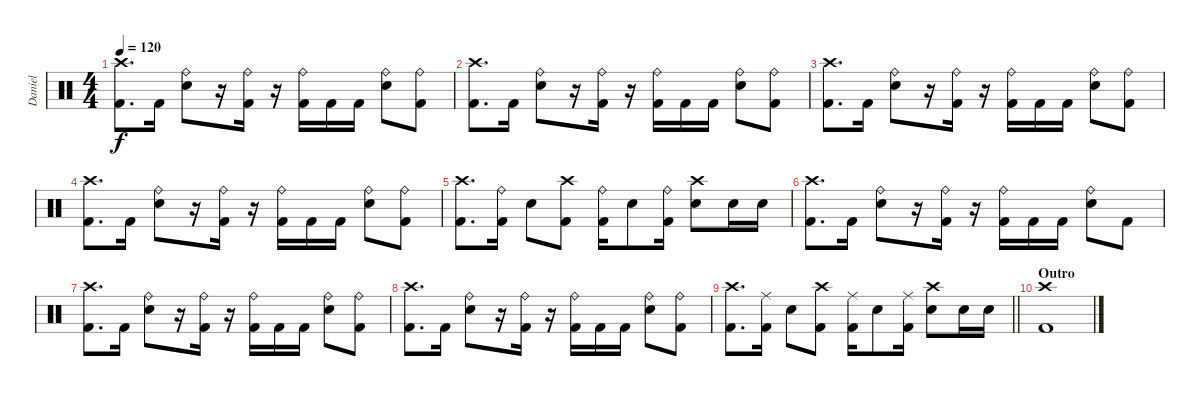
\track ("Daniel" "Daniel") {instrument percussion}
\staff {score}
\articulation defaults
\ts (4 4)
\tempo 120
\clef neutral
\ks c
("Crash high (hit)" "Kick (hit) 2").8{d dy f} "Kick (hit) 2".16 ("Ride (bell)" "Snare (hit) 2").8 r.16 ("Ride (bell)" "Kick (hit) 2").16 r.16 ("Ride (bell)" "Kick (hit) 2").16 "Kick (hit) 2".16 "Kick (hit) 2".16 ("Ride (bell)" "Snare (hit) 2").8 ("Ride (bell)" "Kick (hit) 2").8 |
("Crash high (hit)" "Kick (hit) 2").8{d} "Kick (hit) 2".16 ("Ride (bell)" "Snare (hit) 2").8 r.16 ("Ride (bell)" "Kick (hit) 2").16 r.16 ("Ride (bell)" "Kick (hit) 2").16 "Kick (hit) 2".16 "Kick (hit) 2".16 ("Ride (bell)" "Snare (hit) 2").8 ("Ride (bell)" "Kick (hit) 2").8 |
("Crash high (hit)" "Kick (hit) 2").8{d} "Kick (hit) 2".16 ("Ride (bell)" "Snare (hit) 2").8 r.16 ("Ride (bell)" "Kick (hit) 2").16 r.16 ("Ride (bell)" "Kick (hit) 2").16 "Kick (hit) 2".16 "Kick (hit) 2".16 ("Ride (bell)" "Snare (hit) 2").8 ("Ride (bell)" "Kick (hit) 2").8 |
("Crash high (hit)" "Kick (hit) 2").8{d} "Kick (hit) 2".16 ("Ride (bell)" "Snare (hit) 2").8 r.16 ("Ride (bell)" "Kick (hit) 2").16 r.16 ("Ride (bell)" "Kick (hit) 2").16 "Kick (hit) 2".16 "Kick (hit) 2".16 ("Ride (bell)" "Snare (hit) 2").8 ("Ride (bell)" "Kick (hit) 2").8 |
("Crash high (hit)" "Kick (hit) 2").8{d} ("Ride (bell)" "Kick (hit) 2").16 "Snare (hit) 2".8 ("Crash high (hit)" "Kick (hit) 2").8 ("Ride (bell)" "Kick (hit) 2").16 "Snare (hit) 2".8 ("Ride (bell)" "Kick (hit) 2").16 ("Crash high (hit)" "Snare (hit) 2").8 "Snare (hit) 2".16 "Snare (hit) 2".16 |
("Crash high (hit)" "Kick (hit) 2").8{d} "Kick (hit) 2".16 ("Ride (bell)" "Snare (hit) 2").8 r.16 ("Ride (bell)" "Kick (hit) 2").16 r.16 ("Ride (bell)" "Kick (hit) 2").16 "Kick (hit) 2".16 "Kick (hit) 2".16 ("Ride (bell)" "Snare (hit) 2").8 "Kick (hit) 2".8 |
("Crash high (hit)" "Kick (hit) 2").8{d} "Kick (hit) 2".16 ("Ride (bell)" "Snare (hit) 2").8 r.16 ("Ride (bell)" "Kick (hit) 2").16 r.16 ("Ride (bell)" "Kick (hit) 2").16 "Kick (hit) 2".16 "Kick (hit) 2".16 ("Ride (bell)" "Snare (hit) 2").8 ("Ride (bell)" "Kick (hit) 2").8 |
("Crash high (hit)" "Kick (hit) 2").8{d} "Kick (hit) 2".16 ("Ride (bell)" "Snare (hit) 2").8 r.16 ("Ride (bell)" "Kick (hit) 2").16 r.16 ("Ride (bell)" "Kick (hit) 2").16 "Kick (hit) 2".16 "Kick (hit) 2".16 ("Ride (bell)" "Snare (hit) 2").8 ("Ride (bell)" "Kick (hit) 2").8 |
\barLineRight lightlight
("Crash high (hit)" "Kick (hit) 2").8{d} ("Ride (middle)" "Kick (hit) 2").16 "Snare (hit) 2".8 ("Crash high (hit)" "Kick (hit) 2").8 ("Ride (middle)" "Kick (hit) 2").16 "Snare (hit) 2".8 ("Ride (middle)" "Kick (hit) 2").16 ("Crash high (hit)" "Snare (hit) 2").8 "Snare (hit) 2".16 "Snare (hit) 2".16 |
\section ("" "Outro")
("Crash high (hit)" "Kick (hit) 2").1
